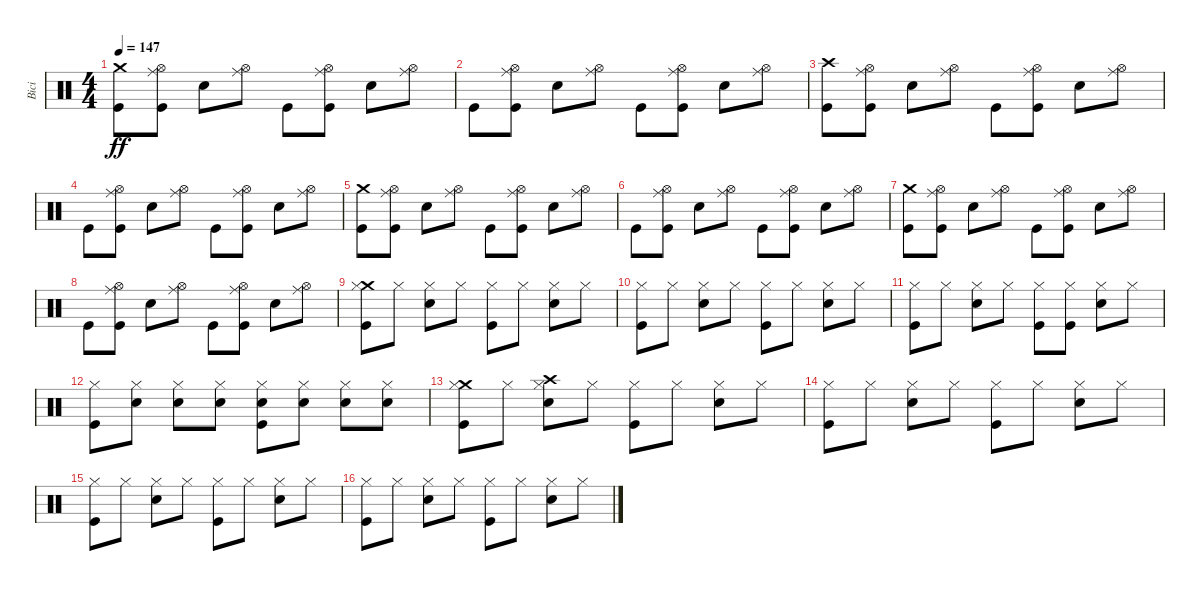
\track ("Bici" "Bici") {instrument percussion}
\staff {score}
\articulation defaults
\ts (4 4)
\tempo 147
\clef neutral
\ks c
("Kick (hit)" "Crash medium (hit)").8{dy ff} ("Kick (hit)" "Hi-Hat (open)" "Ride (middle)").8 "Snare (hit) 2".8 ("Hi-Hat (open)" "Ride (middle)").8 "Kick (hit)".8 ("Kick (hit)" "Hi-Hat (open)" "Ride (middle)").8 "Snare (hit) 2".8 ("Hi-Hat (open)" "Ride (middle)").8 |
"Kick (hit)".8 ("Kick (hit)" "Hi-Hat (open)" "Ride (middle)").8 "Snare (hit) 2".8 ("Hi-Hat (open)" "Ride (middle)").8 "Kick (hit)".8 ("Kick (hit)" "Hi-Hat (open)" "Ride (middle)").8 "Snare (hit) 2".8 ("Hi-Hat (open)" "Ride (middle)").8 |
("Kick (hit)" "Crash high (hit)").8 ("Kick (hit)" "Hi-Hat (open)" "Ride (middle)").8 "Snare (hit) 2".8 ("Hi-Hat (open)" "Ride (middle)").8 "Kick (hit)".8 ("Kick (hit)" "Hi-Hat (open)" "Ride (middle)").8 "Snare (hit) 2".8 ("Hi-Hat (open)" "Ride (middle)").8 |
"Kick (hit)".8 ("Kick (hit)" "Hi-Hat (open)" "Ride (middle)").8 "Snare (hit) 2".8 ("Hi-Hat (open)" "Ride (middle)").8 "Kick (hit)".8 ("Kick (hit)" "Hi-Hat (open)" "Ride (middle)").8 "Snare (hit) 2".8 ("Hi-Hat (open)" "Ride (middle)").8 |
("Kick (hit)" "Crash medium (hit)").8 ("Kick (hit)" "Hi-Hat (open)" "Ride (middle)").8 "Snare (hit) 2".8 ("Hi-Hat (open)" "Ride (middle)").8 "Kick (hit)".8 ("Kick (hit)" "Hi-Hat (open)" "Ride (middle)").8 "Snare (hit) 2".8 ("Hi-Hat (open)" "Ride (middle)").8 |
"Kick (hit)".8 ("Kick (hit)" "Hi-Hat (open)" "Ride (middle)").8 "Snare (hit) 2".8 ("Hi-Hat (open)" "Ride (middle)").8 "Kick (hit)".8 ("Kick (hit)" "Hi-Hat (open)" "Ride (middle)").8 "Snare (hit) 2".8 ("Hi-Hat (open)" "Ride (middle)").8 |
("Kick (hit)" "Crash medium (hit)").8 ("Kick (hit)" "Hi-Hat (open)" "Ride (middle)").8 "Snare (hit) 2".8 ("Hi-Hat (open)" "Ride (middle)").8 "Kick (hit)".8 ("Kick (hit)" "Hi-Hat (open)" "Ride (middle)").8 "Snare (hit) 2".8 ("Hi-Hat (open)" "Ride (middle)").8 |
"Kick (hit)".8 ("Kick (hit)" "Hi-Hat (open)" "Ride (middle)").8 "Snare (hit) 2".8 ("Hi-Hat (open)" "Ride (middle)").8 "Kick (hit)".8 ("Kick (hit)" "Hi-Hat (open)" "Ride (middle)").8 "Snare (hit) 2".8 ("Hi-Hat (open)" "Ride (middle)").8 |
("Kick (hit)" "Crash medium (hit)" "Hi-Hat (closed)").8 "Hi-Hat (closed)".8 ("Snare (hit) 2" "Hi-Hat (closed)").8 "Hi-Hat (closed)".8 ("Kick (hit)" "Hi-Hat (closed)").8 "Hi-Hat (closed)".8 ("Snare (hit) 2" "Hi-Hat (closed)").8 "Hi-Hat (closed)".8 |
("Kick (hit)" "Hi-Hat (closed)").8 "Hi-Hat (closed)".8 ("Snare (hit) 2" "Hi-Hat (closed)").8 "Hi-Hat (closed)".8 ("Kick (hit)" "Hi-Hat (closed)").8 "Hi-Hat (closed)".8 ("Snare (hit) 2" "Hi-Hat (closed)").8 "Hi-Hat (closed)".8 |
("Kick (hit)" "Hi-Hat (closed)").8 "Hi-Hat (closed)".8 ("Snare (hit) 2" "Hi-Hat (closed)").8 "Hi-Hat (closed)".8 ("Kick (hit)" "Hi-Hat (closed)").8 ("Kick (hit)" "Hi-Hat (closed)").8 ("Snare (hit) 2" "Hi-Hat (closed)").8 "Hi-Hat (closed)".8 |
("Kick (hit)" "Hi-Hat (closed)").8 ("Snare (hit) 2" "Hi-Hat (closed)").8 ("Snare (hit) 2" "Hi-Hat (closed)").8 ("Snare (hit) 2" "Hi-Hat (closed)").8 ("Kick (hit)" "Snare (hit) 2" "Hi-Hat (closed)").8 ("Snare (hit) 2" "Hi-Hat (closed)").8 ("Snare (hit) 2" "Hi-Hat (closed)").8 ("Snare (hit) 2" "Hi-Hat (closed)").8 |
("Kick (hit)" "Crash medium (hit)" "Hi-Hat (closed)").8 "Hi-Hat (closed)".8 ("Snare (hit) 2" "Crash high (hit)" "Hi-Hat (closed)").8 "Hi-Hat (closed)".8 ("Kick (hit)" "Hi-Hat (closed)").8 "Hi-Hat (closed)".8 ("Snare (hit) 2" "Hi-Hat (closed)").8 "Hi-Hat (closed)".8 |
("Kick (hit)" "Hi-Hat (closed)").8 "Hi-Hat (closed)".8 ("Snare (hit) 2" "Hi-Hat (closed)").8 "Hi-Hat (closed)".8 ("Kick (hit)" "Hi-Hat (closed)").8 "Hi-Hat (closed)".8 ("Snare (hit) 2" "Hi-Hat (closed)").8 "Hi-Hat (closed)".8 |
("Kick (hit)" "Hi-Hat (closed)").8 "Hi-Hat (closed)".8 ("Snare (hit) 2" "Hi-Hat (closed)").8 "Hi-Hat (closed)".8 ("Kick (hit)" "Hi-Hat (closed)").8 "Hi-Hat (closed)".8 ("Snare (hit) 2" "Hi-Hat (closed)").8 "Hi-Hat (closed)".8 |
("Kick (hit)" "Hi-Hat (closed)").8 "Hi-Hat (closed)".8 ("Snare (hit) 2" "Hi-Hat (closed)").8 "Hi-Hat (closed)".8 ("Kick (hit)" "Hi-Hat (closed)").8 "Hi-Hat (closed)".8 ("Snare (hit) 2" "Hi-Hat (closed)").8 "Hi-Hat (closed)".8
